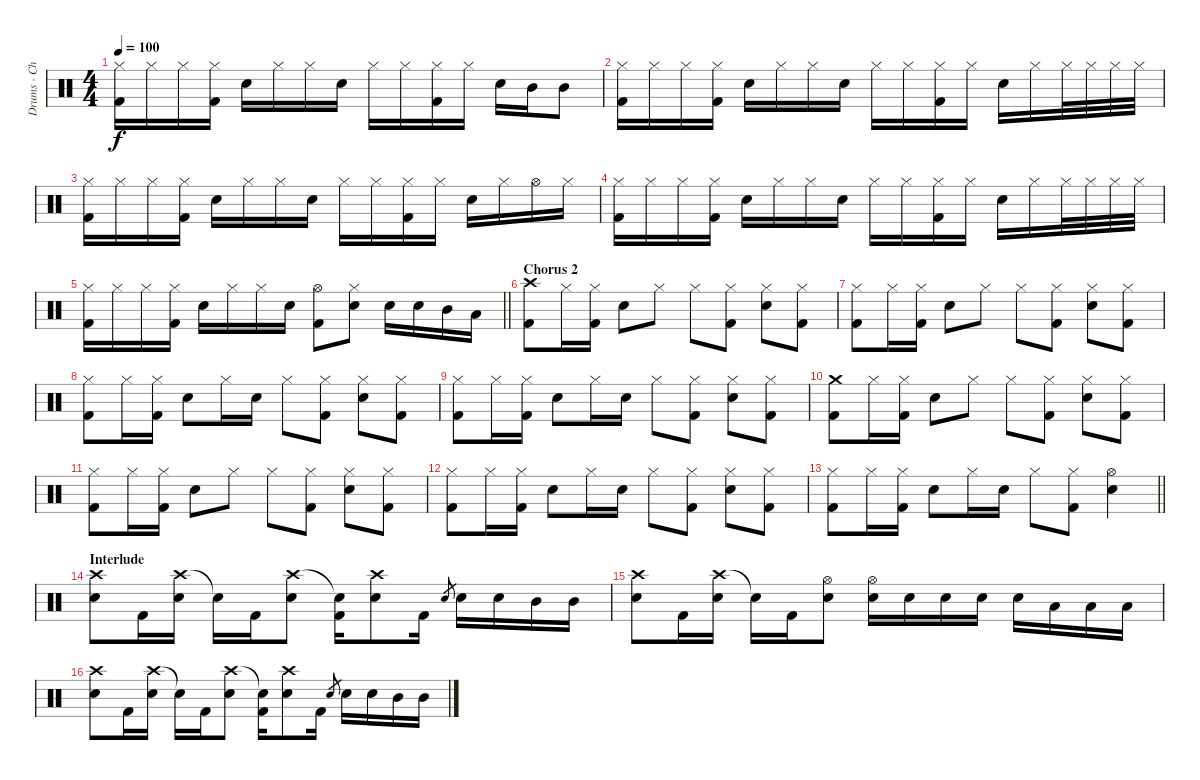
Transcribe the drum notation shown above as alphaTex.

\track ("Drums - Chad" "Drums - Ch") {instrument percussion}
\staff {score}
\articulation defaults
\ts (4 4)
\tempo 100
\clef neutral
\ks c
("Hi-Hat (closed)" "Kick (hit) 2").16{dy f} "Hi-Hat (closed)".16 "Hi-Hat (closed)".16 ("Hi-Hat (closed)" "Kick (hit) 2").16 "Electric Snare (hit)".16 "Hi-Hat (closed)".16 "Hi-Hat (closed)".16 "Electric Snare (hit)".16 "Hi-Hat (closed)".16 "Hi-Hat (closed)".16 ("Hi-Hat (closed)" "Kick (hit) 2").16 "Hi-Hat (closed)".16 "Electric Snare (hit)".16 "Mid Tom (hit)".16 "Mid Tom (hit)".8 |
("Hi-Hat (closed)" "Kick (hit) 2").16 "Hi-Hat (closed)".16 "Hi-Hat (closed)".16 ("Hi-Hat (closed)" "Kick (hit) 2").16 "Electric Snare (hit)".16 "Hi-Hat (closed)".16 "Hi-Hat (closed)".16 "Electric Snare (hit)".16 "Hi-Hat (closed)".16 "Hi-Hat (closed)".16 ("Hi-Hat (closed)" "Kick (hit) 2").16 "Hi-Hat (closed)".16 "Electric Snare (hit)".16 "Hi-Hat (closed)".16 "Hi-Hat (closed)".32 "Hi-Hat (closed)".32 "Hi-Hat (closed)".32 "Hi-Hat (closed)".32 |
("Hi-Hat (closed)" "Kick (hit) 2").16 "Hi-Hat (closed)".16 "Hi-Hat (closed)".16 ("Hi-Hat (closed)" "Kick (hit) 2").16 "Electric Snare (hit)".16 "Hi-Hat (closed)".16 "Hi-Hat (closed)".16 "Electric Snare (hit)".16 "Hi-Hat (closed)".16 "Hi-Hat (closed)".16 ("Hi-Hat (closed)" "Kick (hit) 2").16 "Hi-Hat (closed)".16 "Electric Snare (hit)".16 "Hi-Hat (closed)".16 "Hi-Hat (open)".16 "Hi-Hat (closed)".16 |
("Hi-Hat (closed)" "Kick (hit) 2").16 "Hi-Hat (closed)".16 "Hi-Hat (closed)".16 ("Hi-Hat (closed)" "Kick (hit) 2").16 "Electric Snare (hit)".16 "Hi-Hat (closed)".16 "Hi-Hat (closed)".16 "Electric Snare (hit)".16 "Hi-Hat (closed)".16 "Hi-Hat (closed)".16 ("Hi-Hat (closed)" "Kick (hit) 2").16 "Hi-Hat (closed)".16 "Electric Snare (hit)".16 "Hi-Hat (closed)".16 "Hi-Hat (closed)".32 "Hi-Hat (closed)".32 "Hi-Hat (closed)".32 "Hi-Hat (closed)".32 |
\barLineRight lightlight
("Hi-Hat (closed)" "Kick (hit) 2").16 "Hi-Hat (closed)".16 "Hi-Hat (closed)".16 ("Hi-Hat (closed)" "Kick (hit) 2").16 "Electric Snare (hit)".16 "Hi-Hat (closed)".16 "Hi-Hat (closed)".16 "Electric Snare (hit)".16 ("Hi-Hat (open)" "Kick (hit) 2").8 ("Hi-Hat (closed)" "Electric Snare (hit)").8 "Electric Snare (hit)".16 "Electric Snare (hit)".16 "Mid Tom (hit)".16 "Low Tom (hit)".16 |
\section ("" "Chorus 2")
("Crash high (hit)" "Kick (hit) 2").8 "Hi-Hat (closed)".16 ("Hi-Hat (closed)" "Kick (hit) 2").16 "Electric Snare (hit)".8 "Hi-Hat (closed)".8 "Hi-Hat (closed)".8 ("Hi-Hat (closed)" "Kick (hit) 2").8 ("Hi-Hat (closed)" "Electric Snare (hit)").8 ("Hi-Hat (closed)" "Kick (hit) 2").8 |
("Hi-Hat (closed)" "Kick (hit) 2").8 "Hi-Hat (closed)".16 ("Hi-Hat (closed)" "Kick (hit) 2").16 "Electric Snare (hit)".8 "Hi-Hat (closed)".8 "Hi-Hat (closed)".8 ("Hi-Hat (closed)" "Kick (hit) 2").8 ("Hi-Hat (closed)" "Electric Snare (hit)").8 ("Hi-Hat (closed)" "Kick (hit) 2").8 |
("Hi-Hat (closed)" "Kick (hit) 2").8 "Hi-Hat (closed)".16 ("Hi-Hat (closed)" "Kick (hit) 2").16 "Electric Snare (hit)".8 "Hi-Hat (closed)".16 "Electric Snare (hit)".16 "Hi-Hat (closed)".8 ("Hi-Hat (closed)" "Kick (hit) 2").8 ("Hi-Hat (closed)" "Electric Snare (hit)").8 ("Hi-Hat (closed)" "Kick (hit) 2").8 |
("Hi-Hat (closed)" "Kick (hit) 2").8 "Hi-Hat (closed)".16 ("Hi-Hat (closed)" "Kick (hit) 2").16 "Electric Snare (hit)".8 "Hi-Hat (closed)".16 "Electric Snare (hit)".16 "Hi-Hat (closed)".8 ("Hi-Hat (closed)" "Kick (hit) 2").8 ("Hi-Hat (closed)" "Electric Snare (hit)").8 ("Hi-Hat (closed)" "Kick (hit) 2").8 |
("Crash medium (hit)" "Kick (hit) 2").8 "Hi-Hat (closed)".16 ("Hi-Hat (closed)" "Kick (hit) 2").16 "Electric Snare (hit)".8 "Hi-Hat (closed)".8 "Hi-Hat (closed)".8 ("Hi-Hat (closed)" "Kick (hit) 2").8 ("Hi-Hat (closed)" "Electric Snare (hit)").8 ("Hi-Hat (closed)" "Kick (hit) 2").8 |
("Hi-Hat (closed)" "Kick (hit) 2").8 "Hi-Hat (closed)".16 ("Hi-Hat (closed)" "Kick (hit) 2").16 "Electric Snare (hit)".8 "Hi-Hat (closed)".8 "Hi-Hat (closed)".8 ("Hi-Hat (closed)" "Kick (hit) 2").8 ("Hi-Hat (closed)" "Electric Snare (hit)").8 ("Hi-Hat (closed)" "Kick (hit) 2").8 |
("Hi-Hat (closed)" "Kick (hit) 2").8 "Hi-Hat (closed)".16 ("Hi-Hat (closed)" "Kick (hit) 2").16 "Electric Snare (hit)".8 "Hi-Hat (closed)".16 "Electric Snare (hit)".16 "Hi-Hat (closed)".8 ("Hi-Hat (closed)" "Kick (hit) 2").8 ("Hi-Hat (closed)" "Electric Snare (hit)").8 ("Hi-Hat (closed)" "Kick (hit) 2").8 |
\barLineRight lightlight
("Hi-Hat (closed)" "Kick (hit) 2").8 "Hi-Hat (closed)".16 ("Hi-Hat (closed)" "Kick (hit) 2").16 "Electric Snare (hit)".8 "Hi-Hat (closed)".16 "Electric Snare (hit)".16 "Hi-Hat (closed)".8 ("Hi-Hat (closed)" "Kick (hit) 2").8 ("Hi-Hat (open)" "Electric Snare (hit)").4 |
\section ("" "Interlude")
("Crash high (hit)" "Electric Snare (hit)").8 "Kick (hit) 2".16 ("Crash high (hit)" "Electric Snare (hit)").16 "Snare (hit)"{t}.16 "Kick (hit) 2".16 ("Crash high (hit)" "Electric Snare (hit)").8 ("Snare (hit)"{t} "Kick (hit) 2").16 ("Crash high (hit)" "Electric Snare (hit)").8 "Kick (hit) 2".16 "Electric Snare (hit)".8{gr} "Electric Snare (hit)".16 "Electric Snare (hit)".16 "Mid Tom (hit)".16 "Mid Tom (hit)".16 |
("Crash high (hit)" "Electric Snare (hit)").8 "Kick (hit) 2".16 ("Crash high (hit)" "Electric Snare (hit)").16 "Snare (hit)"{t}.16 "Kick (hit) 2".16 ("Hi-Hat (open)" "Electric Snare (hit)").8 ("Hi-Hat (open)" "Electric Snare (hit)").16 "Electric Snare (hit)".16 "Electric Snare (hit)".16 "Electric Snare (hit)".16 "Electric Snare (hit)".16 "Low Tom (hit)".16 "Low Tom (hit)".16 "Low Tom (hit)".16 |
("Crash high (hit)" "Electric Snare (hit)").8 "Kick (hit) 2".16 ("Crash high (hit)" "Electric Snare (hit)").16 "Snare (hit)"{t}.16 "Kick (hit) 2".16 ("Crash high (hit)" "Electric Snare (hit)").8 ("Snare (hit)"{t} "Kick (hit) 2").16 ("Crash high (hit)" "Electric Snare (hit)").8 "Kick (hit) 2".16 "Electric Snare (hit)".8{gr} "Electric Snare (hit)".16 "Electric Snare (hit)".16 "Mid Tom (hit)".16 "Mid Tom (hit)".16
